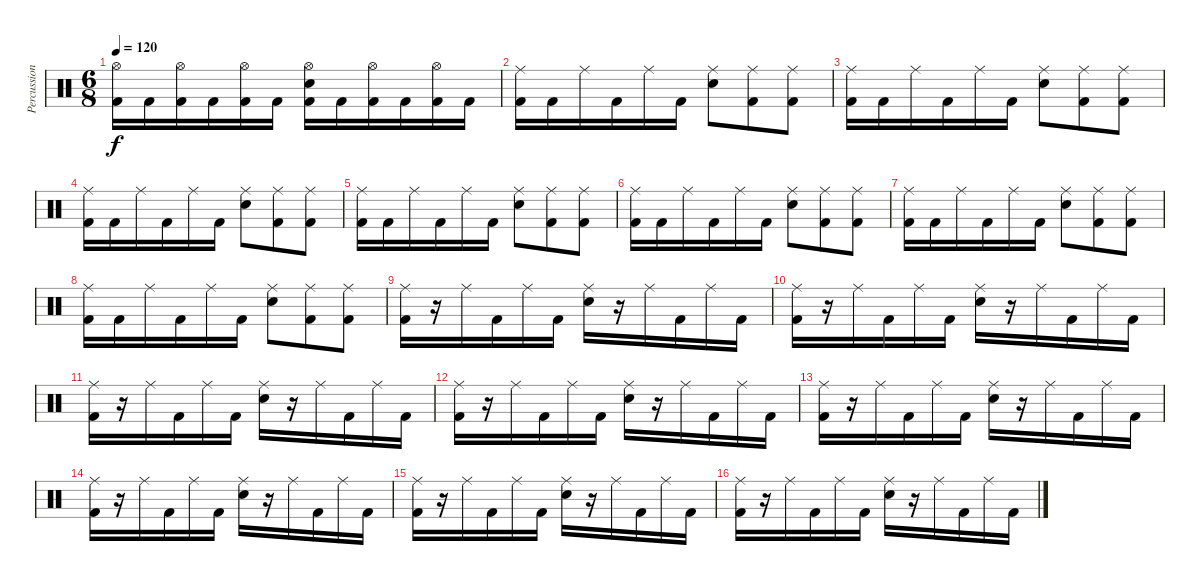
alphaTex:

\track ("Percussion" "Percussion") {instrument percussion}
\staff {score}
\articulation defaults
\ts (6 8)
\tempo 120
\clef neutral
\ks c
("Hi-Hat (open)" "Kick (hit) 2").16{dy f} "Kick (hit) 2".16 ("Hi-Hat (open)" "Kick (hit) 2").16 "Kick (hit) 2".16 ("Hi-Hat (open)" "Kick (hit) 2").16 "Kick (hit) 2".16 ("Hi-Hat (open)" "Electric Snare (hit)" "Kick (hit) 2").16 "Kick (hit) 2".16 ("Hi-Hat (open)" "Kick (hit) 2").16 "Kick (hit) 2".16 ("Hi-Hat (open)" "Kick (hit) 2").16 "Kick (hit) 2".16 |
("Ride (middle)" "Kick (hit) 2").16 "Kick (hit) 2".16 "Ride (middle)".16 "Kick (hit) 2".16 "Ride (middle)".16 "Kick (hit) 2".16 ("Ride (middle)" "Electric Snare (hit)").8 ("Ride (middle)" "Kick (hit) 2").8 ("Ride (middle)" "Kick (hit) 2").8 |
("Ride (middle)" "Kick (hit) 2").16 "Kick (hit) 2".16 "Ride (middle)".16 "Kick (hit) 2".16 "Ride (middle)".16 "Kick (hit) 2".16 ("Ride (middle)" "Electric Snare (hit)").8 ("Ride (middle)" "Kick (hit) 2").8 ("Ride (middle)" "Kick (hit) 2").8 |
("Ride (middle)" "Kick (hit) 2").16 "Kick (hit) 2".16 "Ride (middle)".16 "Kick (hit) 2".16 "Ride (middle)".16 "Kick (hit) 2".16 ("Ride (middle)" "Electric Snare (hit)").8 ("Ride (middle)" "Kick (hit) 2").8 ("Ride (middle)" "Kick (hit) 2").8 |
("Ride (middle)" "Kick (hit) 2").16 "Kick (hit) 2".16 "Ride (middle)".16 "Kick (hit) 2".16 "Ride (middle)".16 "Kick (hit) 2".16 ("Ride (middle)" "Electric Snare (hit)").8 ("Ride (middle)" "Kick (hit) 2").8 ("Ride (middle)" "Kick (hit) 2").8 |
("Ride (middle)" "Kick (hit) 2").16 "Kick (hit) 2".16 "Ride (middle)".16 "Kick (hit) 2".16 "Ride (middle)".16 "Kick (hit) 2".16 ("Ride (middle)" "Electric Snare (hit)").8 ("Ride (middle)" "Kick (hit) 2").8 ("Ride (middle)" "Kick (hit) 2").8 |
("Ride (middle)" "Kick (hit) 2").16 "Kick (hit) 2".16 "Ride (middle)".16 "Kick (hit) 2".16 "Ride (middle)".16 "Kick (hit) 2".16 ("Ride (middle)" "Electric Snare (hit)").8 ("Ride (middle)" "Kick (hit) 2").8 ("Ride (middle)" "Kick (hit) 2").8 |
("Ride (middle)" "Kick (hit) 2").16 "Kick (hit) 2".16 "Ride (middle)".16 "Kick (hit) 2".16 "Ride (middle)".16 "Kick (hit) 2".16 ("Ride (middle)" "Electric Snare (hit)").8 ("Ride (middle)" "Kick (hit) 2").8 ("Ride (middle)" "Kick (hit) 2").8 |
("Ride (middle)" "Kick (hit) 2").16 r.16 "Ride (middle)".16 "Kick (hit) 2".16 "Ride (middle)".16 "Kick (hit) 2".16 ("Ride (middle)" "Electric Snare (hit)").16 r.16 "Ride (middle)".16 "Kick (hit) 2".16 "Ride (middle)".16 "Kick (hit) 2".16 |
("Ride (middle)" "Kick (hit) 2").16 r.16 "Ride (middle)".16 "Kick (hit) 2".16 "Ride (middle)".16 "Kick (hit) 2".16 ("Ride (middle)" "Electric Snare (hit)").16 r.16 "Ride (middle)".16 "Kick (hit) 2".16 "Ride (middle)".16 "Kick (hit) 2".16 |
("Ride (middle)" "Kick (hit) 2").16 r.16 "Ride (middle)".16 "Kick (hit) 2".16 "Ride (middle)".16 "Kick (hit) 2".16 ("Ride (middle)" "Electric Snare (hit)").16 r.16 "Ride (middle)".16 "Kick (hit) 2".16 "Ride (middle)".16 "Kick (hit) 2".16 |
("Ride (middle)" "Kick (hit) 2").16 r.16 "Ride (middle)".16 "Kick (hit) 2".16 "Ride (middle)".16 "Kick (hit) 2".16 ("Ride (middle)" "Electric Snare (hit)").16 r.16 "Ride (middle)".16 "Kick (hit) 2".16 "Ride (middle)".16 "Kick (hit) 2".16 |
("Ride (middle)" "Kick (hit) 2").16 r.16 "Ride (middle)".16 "Kick (hit) 2".16 "Ride (middle)".16 "Kick (hit) 2".16 ("Ride (middle)" "Electric Snare (hit)").16 r.16 "Ride (middle)".16 "Kick (hit) 2".16 "Ride (middle)".16 "Kick (hit) 2".16 |
("Ride (middle)" "Kick (hit) 2").16 r.16 "Ride (middle)".16 "Kick (hit) 2".16 "Ride (middle)".16 "Kick (hit) 2".16 ("Ride (middle)" "Electric Snare (hit)").16 r.16 "Ride (middle)".16 "Kick (hit) 2".16 "Ride (middle)".16 "Kick (hit) 2".16 |
("Ride (middle)" "Kick (hit) 2").16 r.16 "Ride (middle)".16 "Kick (hit) 2".16 "Ride (middle)".16 "Kick (hit) 2".16 ("Ride (middle)" "Electric Snare (hit)").16 r.16 "Ride (middle)".16 "Kick (hit) 2".16 "Ride (middle)".16 "Kick (hit) 2".16 |
("Ride (middle)" "Kick (hit) 2").16 r.16 "Ride (middle)".16 "Kick (hit) 2".16 "Ride (middle)".16 "Kick (hit) 2".16 ("Ride (middle)" "Electric Snare (hit)").16 r.16 "Ride (middle)".16 "Kick (hit) 2".16 "Ride (middle)".16 "Kick (hit) 2".16
